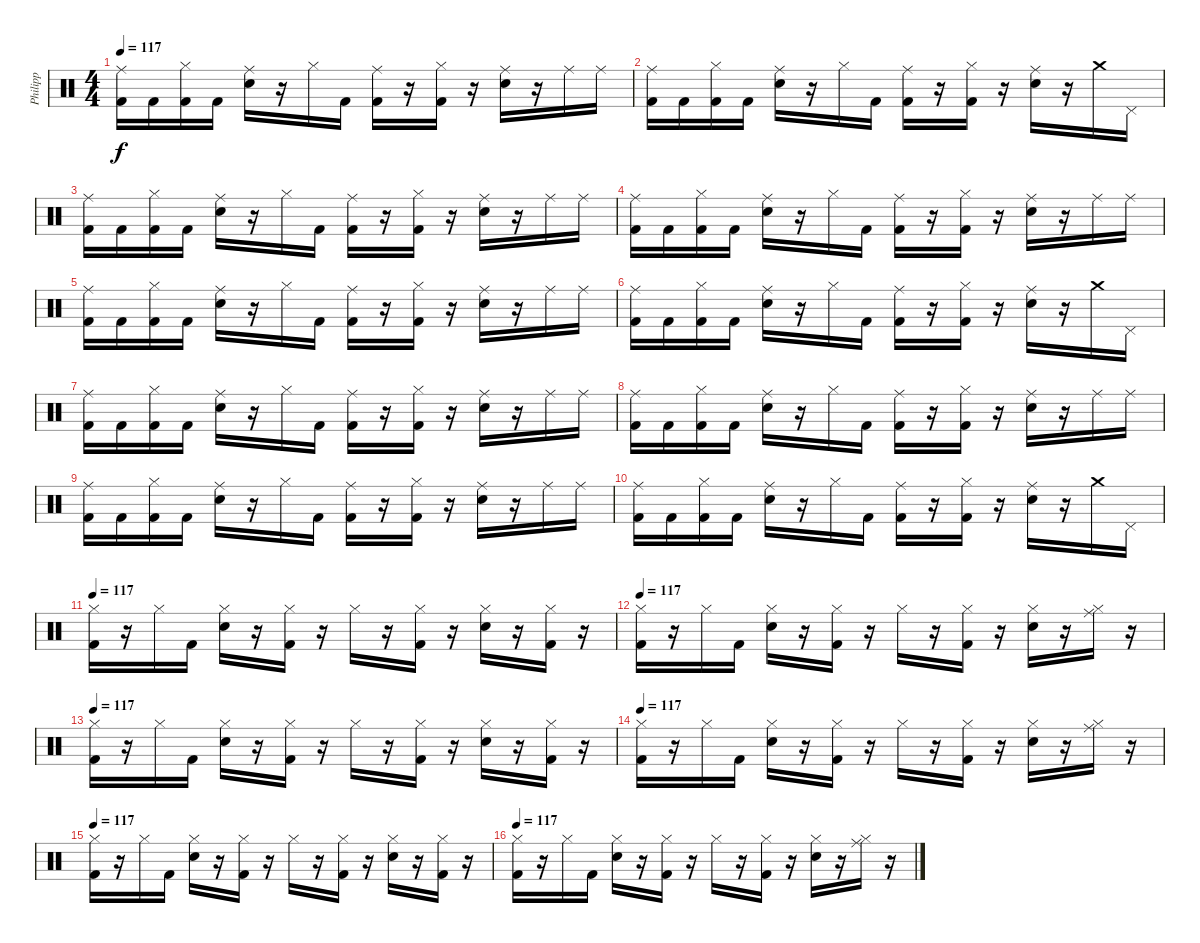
\track ("Philipp" "Philipp") {instrument percussion}
\staff {score}
\articulation defaults
\ts (4 4)
\tempo 117
\clef neutral
\ks c
("Ride (middle)" "Kick (hit) 2").16{dy f} "Kick (hit) 2".16 ("Hi-Hat (closed)" "Kick (hit) 2").16 "Kick (hit) 2".16 ("Ride (middle)" "Electric Snare (hit)").16 r.16 "Hi-Hat (closed)".16 "Kick (hit) 2".16 ("Ride (middle)" "Kick (hit) 2").16 r.16 ("Hi-Hat (closed)" "Kick (hit) 2").16 r.16 ("Ride (middle)" "Electric Snare (hit)").16 r.16 "Ride (middle)".16 "Ride (middle)".16 |
("Ride (middle)" "Kick (hit) 2").16 "Kick (hit) 2".16 ("Hi-Hat (closed)" "Kick (hit) 2").16 "Kick (hit) 2".16 ("Ride (middle)" "Electric Snare (hit)").16 r.16 "Hi-Hat (closed)".16 "Kick (hit) 2".16 ("Ride (middle)" "Kick (hit) 2").16 r.16 ("Hi-Hat (closed)" "Kick (hit) 2").16 r.16 ("Ride (middle)" "Electric Snare (hit)").16 r.16 "Crash medium (hit)".16 "Pedal Hi-Hat (hit)".16 |
("Ride (middle)" "Kick (hit) 2").16 "Kick (hit) 2".16 ("Hi-Hat (closed)" "Kick (hit) 2").16 "Kick (hit) 2".16 ("Ride (middle)" "Electric Snare (hit)").16 r.16 "Hi-Hat (closed)".16 "Kick (hit) 2".16 ("Ride (middle)" "Kick (hit) 2").16 r.16 ("Hi-Hat (closed)" "Kick (hit) 2").16 r.16 ("Ride (middle)" "Electric Snare (hit)").16 r.16 "Ride (middle)".16 "Ride (middle)".16 |
("Ride (middle)" "Kick (hit) 2").16 "Kick (hit) 2".16 ("Hi-Hat (closed)" "Kick (hit) 2").16 "Kick (hit) 2".16 ("Ride (middle)" "Electric Snare (hit)").16 r.16 "Hi-Hat (closed)".16 "Kick (hit) 2".16 ("Ride (middle)" "Kick (hit) 2").16 r.16 ("Hi-Hat (closed)" "Kick (hit) 2").16 r.16 ("Ride (middle)" "Electric Snare (hit)").16 r.16 "Ride (middle)".16 "Ride (middle)".16 |
("Ride (middle)" "Kick (hit) 2").16 "Kick (hit) 2".16 ("Hi-Hat (closed)" "Kick (hit) 2").16 "Kick (hit) 2".16 ("Ride (middle)" "Electric Snare (hit)").16 r.16 "Hi-Hat (closed)".16 "Kick (hit) 2".16 ("Ride (middle)" "Kick (hit) 2").16 r.16 ("Hi-Hat (closed)" "Kick (hit) 2").16 r.16 ("Ride (middle)" "Electric Snare (hit)").16 r.16 "Ride (middle)".16 "Ride (middle)".16 |
("Ride (middle)" "Kick (hit) 2").16 "Kick (hit) 2".16 ("Hi-Hat (closed)" "Kick (hit) 2").16 "Kick (hit) 2".16 ("Ride (middle)" "Electric Snare (hit)").16 r.16 "Hi-Hat (closed)".16 "Kick (hit) 2".16 ("Ride (middle)" "Kick (hit) 2").16 r.16 ("Hi-Hat (closed)" "Kick (hit) 2").16 r.16 ("Ride (middle)" "Electric Snare (hit)").16 r.16 "Crash medium (hit)".16 "Pedal Hi-Hat (hit)".16 |
("Ride (middle)" "Kick (hit) 2").16 "Kick (hit) 2".16 ("Hi-Hat (closed)" "Kick (hit) 2").16 "Kick (hit) 2".16 ("Ride (middle)" "Electric Snare (hit)").16 r.16 "Hi-Hat (closed)".16 "Kick (hit) 2".16 ("Ride (middle)" "Kick (hit) 2").16 r.16 ("Hi-Hat (closed)" "Kick (hit) 2").16 r.16 ("Ride (middle)" "Electric Snare (hit)").16 r.16 "Ride (middle)".16 "Ride (middle)".16 |
("Ride (middle)" "Kick (hit) 2").16 "Kick (hit) 2".16 ("Hi-Hat (closed)" "Kick (hit) 2").16 "Kick (hit) 2".16 ("Ride (middle)" "Electric Snare (hit)").16 r.16 "Hi-Hat (closed)".16 "Kick (hit) 2".16 ("Ride (middle)" "Kick (hit) 2").16 r.16 ("Hi-Hat (closed)" "Kick (hit) 2").16 r.16 ("Ride (middle)" "Electric Snare (hit)").16 r.16 "Ride (middle)".16 "Ride (middle)".16 |
("Ride (middle)" "Kick (hit) 2").16 "Kick (hit) 2".16 ("Hi-Hat (closed)" "Kick (hit) 2").16 "Kick (hit) 2".16 ("Ride (middle)" "Electric Snare (hit)").16 r.16 "Hi-Hat (closed)".16 "Kick (hit) 2".16 ("Ride (middle)" "Kick (hit) 2").16 r.16 ("Hi-Hat (closed)" "Kick (hit) 2").16 r.16 ("Ride (middle)" "Electric Snare (hit)").16 r.16 "Ride (middle)".16 "Ride (middle)".16 |
("Ride (middle)" "Kick (hit) 2").16 "Kick (hit) 2".16 ("Hi-Hat (closed)" "Kick (hit) 2").16 "Kick (hit) 2".16 ("Ride (middle)" "Electric Snare (hit)").16 r.16 "Hi-Hat (closed)".16 "Kick (hit) 2".16 ("Ride (middle)" "Kick (hit) 2").16 r.16 ("Hi-Hat (closed)" "Kick (hit) 2").16 r.16 ("Ride (middle)" "Electric Snare (hit)").16 r.16 "Crash medium (hit)".16 "Pedal Hi-Hat (hit)".16 |
\tempo 117
("Hi-Hat (closed)" "Kick (hit) 2").16 r.16 "Hi-Hat (closed)".16 "Kick (hit) 2".16 ("Hi-Hat (closed)" "Electric Snare (hit)").16 r.16 ("Hi-Hat (closed)" "Kick (hit) 2").16 r.16 "Hi-Hat (closed)".16 r.16 ("Hi-Hat (closed)" "Kick (hit) 2").16 r.16 ("Hi-Hat (closed)" "Electric Snare (hit)").16 r.16 ("Hi-Hat (closed)" "Kick (hit) 2").16 r.16 |
\tempo 117
("Hi-Hat (closed)" "Kick (hit) 2").16 r.16 "Hi-Hat (closed)".16 "Kick (hit) 2".16 ("Hi-Hat (closed)" "Electric Snare (hit)").16 r.16 ("Hi-Hat (closed)" "Kick (hit) 2").16 r.16 "Hi-Hat (closed)".16 r.16 ("Hi-Hat (closed)" "Kick (hit) 2").16 r.16 ("Hi-Hat (closed)" "Electric Snare (hit)").16 r.16 ("Hi-Hat (closed)" "Ride (middle)").16 r.16 |
\tempo 117
("Hi-Hat (closed)" "Kick (hit) 2").16 r.16 "Hi-Hat (closed)".16 "Kick (hit) 2".16 ("Hi-Hat (closed)" "Electric Snare (hit)").16 r.16 ("Hi-Hat (closed)" "Kick (hit) 2").16 r.16 "Hi-Hat (closed)".16 r.16 ("Hi-Hat (closed)" "Kick (hit) 2").16 r.16 ("Hi-Hat (closed)" "Electric Snare (hit)").16 r.16 ("Hi-Hat (closed)" "Kick (hit) 2").16 r.16 |
\tempo 117
("Hi-Hat (closed)" "Kick (hit) 2").16 r.16 "Hi-Hat (closed)".16 "Kick (hit) 2".16 ("Hi-Hat (closed)" "Electric Snare (hit)").16 r.16 ("Hi-Hat (closed)" "Kick (hit) 2").16 r.16 "Hi-Hat (closed)".16 r.16 ("Hi-Hat (closed)" "Kick (hit) 2").16 r.16 ("Hi-Hat (closed)" "Electric Snare (hit)").16 r.16 ("Hi-Hat (closed)" "Ride (middle)").16 r.16 |
\tempo 117
("Hi-Hat (closed)" "Kick (hit) 2").16 r.16 "Hi-Hat (closed)".16 "Kick (hit) 2".16 ("Hi-Hat (closed)" "Electric Snare (hit)").16 r.16 ("Hi-Hat (closed)" "Kick (hit) 2").16 r.16 "Hi-Hat (closed)".16 r.16 ("Hi-Hat (closed)" "Kick (hit) 2").16 r.16 ("Hi-Hat (closed)" "Electric Snare (hit)").16 r.16 ("Hi-Hat (closed)" "Kick (hit) 2").16 r.16 |
\tempo 117
("Hi-Hat (closed)" "Kick (hit) 2").16 r.16 "Hi-Hat (closed)".16 "Kick (hit) 2".16 ("Hi-Hat (closed)" "Electric Snare (hit)").16 r.16 ("Hi-Hat (closed)" "Kick (hit) 2").16 r.16 "Hi-Hat (closed)".16 r.16 ("Hi-Hat (closed)" "Kick (hit) 2").16 r.16 ("Hi-Hat (closed)" "Electric Snare (hit)").16 r.16 ("Hi-Hat (closed)" "Ride (middle)").16 r.16
